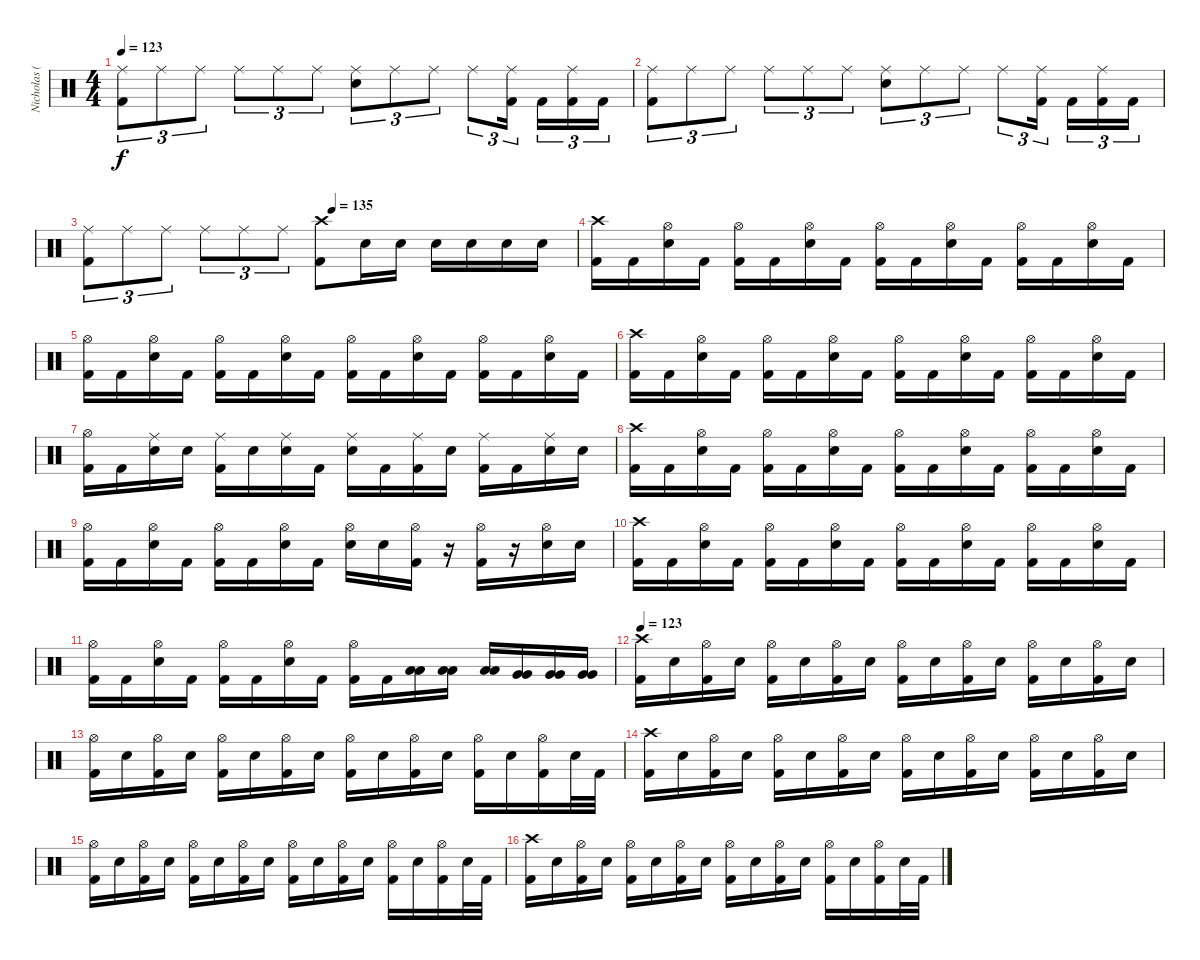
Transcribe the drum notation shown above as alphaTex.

\track ("Nicholas (Drums)" "Nicholas (") {instrument percussion}
\staff {score}
\articulation defaults
\ts (4 4)
\tempo 123
\clef neutral
\ks c
("Ride (middle)" "Kick (hit) 2").8{tu (3 2) dy f} "Ride (middle)".8{tu (3 2)} "Ride (middle)".8{tu (3 2)} "Ride (middle)".8{tu (3 2)} "Ride (middle)".8{tu (3 2)} "Ride (middle)".8{tu (3 2)} ("Ride (middle)" "Electric Snare (hit)").8{tu (3 2)} "Ride (middle)".8{tu (3 2)} "Ride (middle)".8{tu (3 2)} "Ride (middle)".8{tu (3 2)} ("Ride (middle)" "Kick (hit) 2").16{tu (3 2)} "Kick (hit) 2".16{tu (3 2)} ("Ride (middle)" "Kick (hit) 2").16{tu (3 2)} "Kick (hit) 2".16{tu (3 2)} |
("Ride (middle)" "Kick (hit) 2").8{tu (3 2)} "Ride (middle)".8{tu (3 2)} "Ride (middle)".8{tu (3 2)} "Ride (middle)".8{tu (3 2)} "Ride (middle)".8{tu (3 2)} "Ride (middle)".8{tu (3 2)} ("Ride (middle)" "Electric Snare (hit)").8{tu (3 2)} "Ride (middle)".8{tu (3 2)} "Ride (middle)".8{tu (3 2)} "Ride (middle)".8{tu (3 2)} ("Ride (middle)" "Kick (hit) 2").16{tu (3 2)} "Kick (hit) 2".16{tu (3 2)} ("Ride (middle)" "Kick (hit) 2").16{tu (3 2)} "Kick (hit) 2".16{tu (3 2)} |
\tempo (135 0.5)
("Ride (middle)" "Kick (hit) 2").8{tu (3 2)} "Ride (middle)".8{tu (3 2)} "Ride (middle)".8{tu (3 2)} "Ride (middle)".8{tu (3 2)} "Ride (middle)".8{tu (3 2)} "Ride (middle)".8{tu (3 2)} ("Crash high (hit)" "Kick (hit) 2").8 "Electric Snare (hit)".16 "Electric Snare (hit)".16 "Electric Snare (hit)".16 "Electric Snare (hit)".16 "Electric Snare (hit)".16 "Electric Snare (hit)".16 |
("Crash high (hit)" "Kick (hit) 2").16 "Kick (hit) 2".16 ("Hi-Hat (open)" "Electric Snare (hit)").16 "Kick (hit) 2".16 ("Hi-Hat (open)" "Kick (hit) 2").16 "Kick (hit) 2".16 ("Hi-Hat (open)" "Electric Snare (hit)").16 "Kick (hit) 2".16 ("Hi-Hat (open)" "Kick (hit) 2").16 "Kick (hit) 2".16 ("Hi-Hat (open)" "Electric Snare (hit)").16 "Kick (hit) 2".16 ("Hi-Hat (open)" "Kick (hit) 2").16 "Kick (hit) 2".16 ("Hi-Hat (open)" "Electric Snare (hit)").16 "Kick (hit) 2".16 |
("Hi-Hat (open)" "Kick (hit) 2").16 "Kick (hit) 2".16 ("Hi-Hat (open)" "Electric Snare (hit)").16 "Kick (hit) 2".16 ("Hi-Hat (open)" "Kick (hit) 2").16 "Kick (hit) 2".16 ("Hi-Hat (open)" "Electric Snare (hit)").16 "Kick (hit) 2".16 ("Hi-Hat (open)" "Kick (hit) 2").16 "Kick (hit) 2".16 ("Hi-Hat (open)" "Electric Snare (hit)").16 "Kick (hit) 2".16 ("Hi-Hat (open)" "Kick (hit) 2").16 "Kick (hit) 2".16 ("Hi-Hat (open)" "Electric Snare (hit)").16 "Kick (hit) 2".16 |
("Crash high (hit)" "Kick (hit) 2").16 "Kick (hit) 2".16 ("Hi-Hat (open)" "Electric Snare (hit)").16 "Kick (hit) 2".16 ("Hi-Hat (open)" "Kick (hit) 2").16 "Kick (hit) 2".16 ("Hi-Hat (open)" "Electric Snare (hit)").16 "Kick (hit) 2".16 ("Hi-Hat (open)" "Kick (hit) 2").16 "Kick (hit) 2".16 ("Hi-Hat (open)" "Electric Snare (hit)").16 "Kick (hit) 2".16 ("Hi-Hat (open)" "Kick (hit) 2").16 "Kick (hit) 2".16 ("Hi-Hat (open)" "Electric Snare (hit)").16 "Kick (hit) 2".16 |
("Hi-Hat (open)" "Kick (hit) 2").16 "Kick (hit) 2".16 ("Ride (middle)" "Electric Snare (hit)").16 "Electric Snare (hit)".16 ("Ride (middle)" "Kick (hit) 2").16 "Electric Snare (hit)".16 ("Ride (middle)" "Electric Snare (hit)").16 "Kick (hit) 2".16 ("Ride (middle)" "Electric Snare (hit)").16 "Kick (hit) 2".16 ("Ride (middle)" "Kick (hit) 2").16 "Electric Snare (hit)".16 ("Ride (middle)" "Kick (hit) 2").16 "Kick (hit) 2".16 ("Ride (middle)" "Electric Snare (hit)").16 "Electric Snare (hit)".16 |
("Crash high (hit)" "Kick (hit) 2").16 "Kick (hit) 2".16 ("Hi-Hat (open)" "Electric Snare (hit)").16 "Kick (hit) 2".16 ("Hi-Hat (open)" "Kick (hit) 2").16 "Kick (hit) 2".16 ("Hi-Hat (open)" "Electric Snare (hit)").16 "Kick (hit) 2".16 ("Hi-Hat (open)" "Kick (hit) 2").16 "Kick (hit) 2".16 ("Hi-Hat (open)" "Electric Snare (hit)").16 "Kick (hit) 2".16 ("Hi-Hat (open)" "Kick (hit) 2").16 "Kick (hit) 2".16 ("Hi-Hat (open)" "Electric Snare (hit)").16 "Kick (hit) 2".16 |
("Hi-Hat (open)" "Kick (hit) 2").16 "Kick (hit) 2".16 ("Hi-Hat (open)" "Electric Snare (hit)").16 "Kick (hit) 2".16 ("Hi-Hat (open)" "Kick (hit) 2").16 "Kick (hit) 2".16 ("Hi-Hat (open)" "Electric Snare (hit)").16 "Kick (hit) 2".16 ("Hi-Hat (open)" "Electric Snare (hit)").16 "Electric Snare (hit)".16 ("Hi-Hat (open)" "Kick (hit) 2").16 r.16 ("Hi-Hat (open)" "Kick (hit) 2").16 r.16 ("Hi-Hat (open)" "Electric Snare (hit)").16 "Electric Snare (hit)".16 |
("Crash high (hit)" "Kick (hit) 2").16 "Kick (hit) 2".16 ("Hi-Hat (open)" "Electric Snare (hit)").16 "Kick (hit) 2".16 ("Hi-Hat (open)" "Kick (hit) 2").16 "Kick (hit) 2".16 ("Hi-Hat (open)" "Electric Snare (hit)").16 "Kick (hit) 2".16 ("Hi-Hat (open)" "Kick (hit) 2").16 "Kick (hit) 2".16 ("Hi-Hat (open)" "Electric Snare (hit)").16 "Kick (hit) 2".16 ("Hi-Hat (open)" "Kick (hit) 2").16 "Kick (hit) 2".16 ("Hi-Hat (open)" "Electric Snare (hit)").16 "Kick (hit) 2".16 |
("Hi-Hat (open)" "Kick (hit) 2").16 "Kick (hit) 2".16 ("Hi-Hat (open)" "Electric Snare (hit)").16 "Kick (hit) 2".16 ("Hi-Hat (open)" "Kick (hit) 2").16 "Kick (hit) 2".16 ("Hi-Hat (open)" "Electric Snare (hit)").16 "Kick (hit) 2".16 ("Hi-Hat (open)" "Kick (hit) 2").16 "Kick (hit) 2".16 ("Low Tom (hit)" "Low Tom (hit)").16{balance 11} ("Low Tom (hit)" "Low Tom (hit)").16 ("Low Tom (hit)" "Low Tom (hit)").16 ("Very Low Tom (hit)" "Very Low Tom (hit)").16{balance 6} ("Very Low Tom (hit)" "Very Low Tom (hit)").16 ("Very Low Tom (hit)" "Very Low Tom (hit)").16 |
\tempo 123
("Crash high (hit)" "Kick (hit) 2").16{balance 8} "Electric Snare (hit)".16 ("Hi-Hat (open)" "Kick (hit) 2").16 "Electric Snare (hit)".16 ("Hi-Hat (open)" "Kick (hit) 2").16 "Electric Snare (hit)".16 ("Hi-Hat (open)" "Kick (hit) 2").16 "Electric Snare (hit)".16 ("Hi-Hat (open)" "Kick (hit) 2").16 "Electric Snare (hit)".16 ("Hi-Hat (open)" "Kick (hit) 2").16 "Electric Snare (hit)".16 ("Hi-Hat (open)" "Kick (hit) 2").16 "Electric Snare (hit)".16 ("Hi-Hat (open)" "Kick (hit) 2").16 "Electric Snare (hit)".16 |
("Hi-Hat (open)" "Kick (hit) 2").16 "Electric Snare (hit)".16 ("Hi-Hat (open)" "Kick (hit) 2").16 "Electric Snare (hit)".16 ("Hi-Hat (open)" "Kick (hit) 2").16 "Electric Snare (hit)".16 ("Hi-Hat (open)" "Kick (hit) 2").16 "Electric Snare (hit)".16 ("Hi-Hat (open)" "Kick (hit) 2").16 "Electric Snare (hit)".16 ("Hi-Hat (open)" "Kick (hit) 2").16 "Electric Snare (hit)".16 ("Hi-Hat (open)" "Kick (hit) 2").16 "Electric Snare (hit)".16 ("Hi-Hat (open)" "Kick (hit) 2").16 "Electric Snare (hit)".32 "Kick (hit) 2".32 |
("Crash high (hit)" "Kick (hit) 2").16 "Electric Snare (hit)".16 ("Hi-Hat (open)" "Kick (hit) 2").16 "Electric Snare (hit)".16 ("Hi-Hat (open)" "Kick (hit) 2").16 "Electric Snare (hit)".16 ("Hi-Hat (open)" "Kick (hit) 2").16 "Electric Snare (hit)".16 ("Hi-Hat (open)" "Kick (hit) 2").16 "Electric Snare (hit)".16 ("Hi-Hat (open)" "Kick (hit) 2").16 "Electric Snare (hit)".16 ("Hi-Hat (open)" "Kick (hit) 2").16 "Electric Snare (hit)".16 ("Hi-Hat (open)" "Kick (hit) 2").16 "Electric Snare (hit)".16 |
("Hi-Hat (open)" "Kick (hit) 2").16 "Electric Snare (hit)".16 ("Hi-Hat (open)" "Kick (hit) 2").16 "Electric Snare (hit)".16 ("Hi-Hat (open)" "Kick (hit) 2").16 "Electric Snare (hit)".16 ("Hi-Hat (open)" "Kick (hit) 2").16 "Electric Snare (hit)".16 ("Hi-Hat (open)" "Kick (hit) 2").16 "Electric Snare (hit)".16 ("Hi-Hat (open)" "Kick (hit) 2").16 "Electric Snare (hit)".16 ("Hi-Hat (open)" "Kick (hit) 2").16 "Electric Snare (hit)".16 ("Hi-Hat (open)" "Kick (hit) 2").16 "Electric Snare (hit)".32 "Kick (hit) 2".32 |
("Crash high (hit)" "Kick (hit) 2").16 "Electric Snare (hit)".16 ("Hi-Hat (open)" "Kick (hit) 2").16 "Electric Snare (hit)".16 ("Hi-Hat (open)" "Kick (hit) 2").16 "Electric Snare (hit)".16 ("Hi-Hat (open)" "Kick (hit) 2").16 "Electric Snare (hit)".16 ("Hi-Hat (open)" "Kick (hit) 2").16 "Electric Snare (hit)".16 ("Hi-Hat (open)" "Kick (hit) 2").16 "Electric Snare (hit)".16 ("Hi-Hat (open)" "Kick (hit) 2").16 "Electric Snare (hit)".16 ("Hi-Hat (open)" "Kick (hit) 2").16 "Electric Snare (hit)".32 "Kick (hit) 2".32
